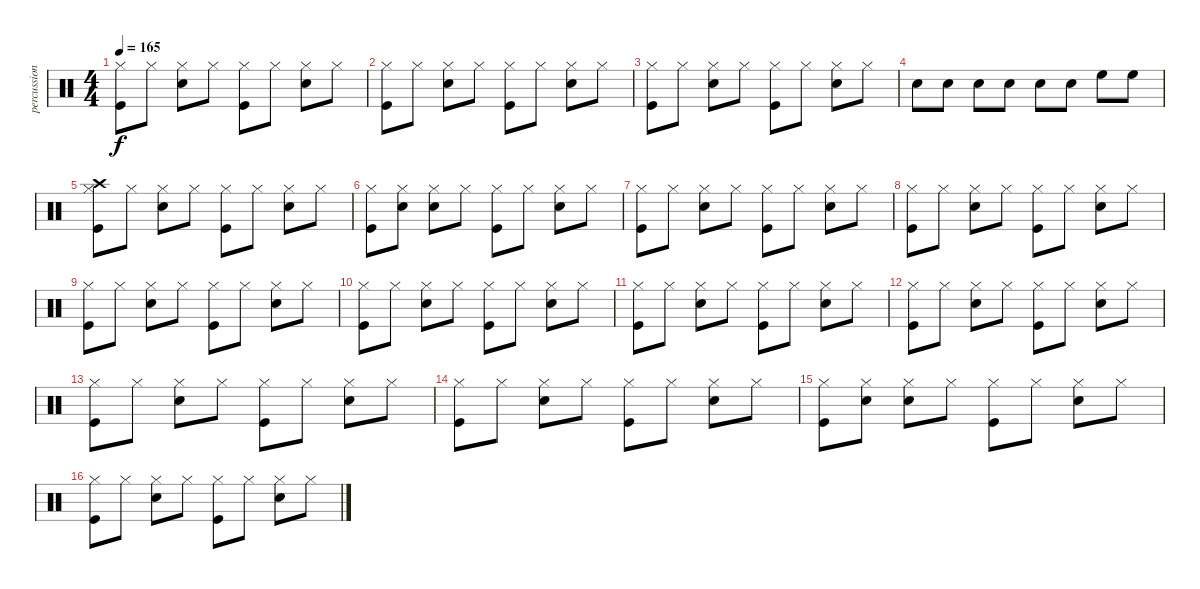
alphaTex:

\track ("percussion" "percussion") {instrument percussion}
\staff {score}
\articulation defaults
\ts (4 4)
\tempo 165
\clef neutral
\ks c
("Kick (hit)" "Hi-Hat (closed)").8{dy f} "Hi-Hat (closed)".8 ("Electric Snare (hit)" "Hi-Hat (closed)").8 "Hi-Hat (closed)".8 ("Kick (hit)" "Hi-Hat (closed)").8 "Hi-Hat (closed)".8 ("Electric Snare (hit)" "Hi-Hat (closed)").8 "Hi-Hat (closed)".8 |
("Kick (hit)" "Hi-Hat (closed)").8 "Hi-Hat (closed)".8 ("Electric Snare (hit)" "Hi-Hat (closed)").8 "Hi-Hat (closed)".8 ("Kick (hit)" "Hi-Hat (closed)").8 "Hi-Hat (closed)".8 ("Electric Snare (hit)" "Hi-Hat (closed)").8 "Hi-Hat (closed)".8 |
("Kick (hit)" "Hi-Hat (closed)").8 "Hi-Hat (closed)".8 ("Electric Snare (hit)" "Hi-Hat (closed)").8 "Hi-Hat (closed)".8 ("Kick (hit)" "Hi-Hat (closed)").8 "Hi-Hat (closed)".8 ("Electric Snare (hit)" "Hi-Hat (closed)").8 "Hi-Hat (closed)".8 |
"Electric Snare (hit)".8 "Electric Snare (hit)".8 "Electric Snare (hit)".8 "Electric Snare (hit)".8 "Snare (hit) 2".8 "Snare (hit) 2".8 "High Floor Tom (hit)".8 "High Floor Tom (hit)".8 |
("Crash high (hit)" "Kick (hit)" "Hi-Hat (closed)").8 "Hi-Hat (closed)".8 ("Electric Snare (hit)" "Hi-Hat (closed)").8 "Hi-Hat (closed)".8 ("Kick (hit)" "Hi-Hat (closed)").8 "Hi-Hat (closed)".8 ("Electric Snare (hit)" "Hi-Hat (closed)").8 "Hi-Hat (closed)".8 |
("Kick (hit)" "Hi-Hat (closed)").8 ("Snare (hit)" "Hi-Hat (closed)").8 ("Electric Snare (hit)" "Hi-Hat (closed)").8 "Hi-Hat (closed)".8 ("Kick (hit)" "Hi-Hat (closed)").8 "Hi-Hat (closed)".8 ("Electric Snare (hit)" "Hi-Hat (closed)").8 "Hi-Hat (closed)".8 |
("Kick (hit)" "Hi-Hat (closed)").8 "Hi-Hat (closed)".8 ("Electric Snare (hit)" "Hi-Hat (closed)").8 "Hi-Hat (closed)".8 ("Kick (hit)" "Hi-Hat (closed)").8 "Hi-Hat (closed)".8 ("Electric Snare (hit)" "Hi-Hat (closed)").8 "Hi-Hat (closed)".8 |
("Kick (hit)" "Hi-Hat (closed)").8 "Hi-Hat (closed)".8 ("Electric Snare (hit)" "Hi-Hat (closed)").8 "Hi-Hat (closed)".8 ("Kick (hit)" "Hi-Hat (closed)").8 "Hi-Hat (closed)".8 ("Electric Snare (hit)" "Hi-Hat (closed)").8 "Hi-Hat (closed)".8 |
("Kick (hit)" "Hi-Hat (closed)").8 "Hi-Hat (closed)".8 ("Electric Snare (hit)" "Hi-Hat (closed)").8 "Hi-Hat (closed)".8 ("Kick (hit)" "Hi-Hat (closed)").8 "Hi-Hat (closed)".8 ("Electric Snare (hit)" "Hi-Hat (closed)").8 "Hi-Hat (closed)".8 |
("Kick (hit)" "Hi-Hat (closed)").8 "Hi-Hat (closed)".8 ("Electric Snare (hit)" "Hi-Hat (closed)").8 "Hi-Hat (closed)".8 ("Kick (hit)" "Hi-Hat (closed)").8 "Hi-Hat (closed)".8 ("Electric Snare (hit)" "Hi-Hat (closed)").8 "Hi-Hat (closed)".8 |
("Kick (hit)" "Hi-Hat (closed)").8 "Hi-Hat (closed)".8 ("Electric Snare (hit)" "Hi-Hat (closed)").8 "Hi-Hat (closed)".8 ("Kick (hit)" "Hi-Hat (closed)").8 "Hi-Hat (closed)".8 ("Electric Snare (hit)" "Hi-Hat (closed)").8 "Hi-Hat (closed)".8 |
("Kick (hit)" "Hi-Hat (closed)").8 "Hi-Hat (closed)".8 ("Electric Snare (hit)" "Hi-Hat (closed)").8 "Hi-Hat (closed)".8 ("Kick (hit)" "Hi-Hat (closed)").8 "Hi-Hat (closed)".8 ("Electric Snare (hit)" "Hi-Hat (closed)").8 "Hi-Hat (closed)".8 |
("Kick (hit)" "Hi-Hat (closed)").8 "Hi-Hat (closed)".8 ("Electric Snare (hit)" "Hi-Hat (closed)").8 "Hi-Hat (closed)".8 ("Kick (hit)" "Hi-Hat (closed)").8 "Hi-Hat (closed)".8 ("Electric Snare (hit)" "Hi-Hat (closed)").8 "Hi-Hat (closed)".8 |
("Kick (hit)" "Hi-Hat (closed)").8 "Hi-Hat (closed)".8 ("Electric Snare (hit)" "Hi-Hat (closed)").8 "Hi-Hat (closed)".8 ("Kick (hit)" "Hi-Hat (closed)").8 "Hi-Hat (closed)".8 ("Electric Snare (hit)" "Hi-Hat (closed)").8 "Hi-Hat (closed)".8 |
("Kick (hit)" "Hi-Hat (closed)").8 ("Snare (hit)" "Hi-Hat (closed)").8 ("Electric Snare (hit)" "Hi-Hat (closed)").8 "Hi-Hat (closed)".8 ("Kick (hit)" "Hi-Hat (closed)").8 "Hi-Hat (closed)".8 ("Electric Snare (hit)" "Hi-Hat (closed)").8 "Hi-Hat (closed)".8 |
("Kick (hit)" "Hi-Hat (closed)").8 "Hi-Hat (closed)".8 ("Electric Snare (hit)" "Hi-Hat (closed)").8 "Hi-Hat (closed)".8 ("Kick (hit)" "Hi-Hat (closed)").8 "Hi-Hat (closed)".8 ("Electric Snare (hit)" "Hi-Hat (closed)").8 "Hi-Hat (closed)".8
